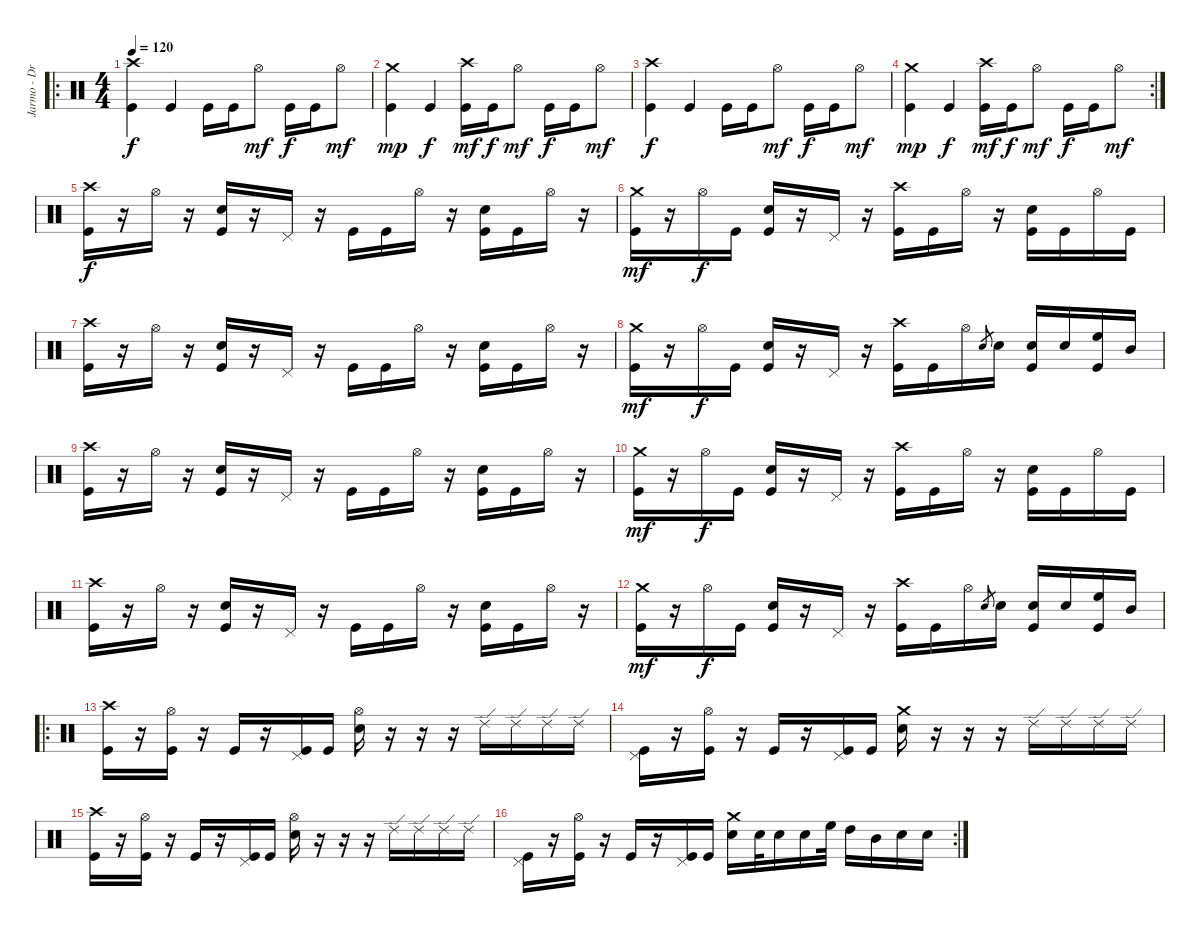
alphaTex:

\track ("Jarmo - Drums" "Jarmo - Dr") {instrument percussion}
\staff {score}
\articulation defaults
\ro
\ts (4 4)
\tempo 120
\clef neutral
\ks c
("Kick (hit)" "Crash high (hit)").4{dy f} "Kick (hit)".4 "Kick (hit)".16 "Kick (hit)".16 "Hi-Hat (open)".8{dy mf} "Kick (hit)".16{dy f} "Kick (hit)".16 "Hi-Hat (open)".8{dy mf} |
("Kick (hit)" "Crash medium (hit)").4{dy mp} "Kick (hit)".4{dy f} ("Kick (hit)" "Crash high (hit)").16{dy mf} "Kick (hit)".16{dy f} "Hi-Hat (open)".8{dy mf} "Kick (hit)".16{dy f} "Kick (hit)".16 "Hi-Hat (open)".8{dy mf} |
("Kick (hit)" "Crash high (hit)").4{dy f} "Kick (hit)".4 "Kick (hit)".16 "Kick (hit)".16 "Hi-Hat (open)".8{dy mf} "Kick (hit)".16{dy f} "Kick (hit)".16 "Hi-Hat (open)".8{dy mf} |
\rc 2
("Kick (hit)" "Crash medium (hit)").4{dy mp} "Kick (hit)".4{dy f} ("Kick (hit)" "Crash high (hit)").16{dy mf} "Kick (hit)".16{dy f} "Hi-Hat (open)".8{dy mf} "Kick (hit)".16{dy f} "Kick (hit)".16 "Hi-Hat (open)".8{dy mf} |
("Kick (hit)" "Crash high (hit)").16{dy f} r.16 "Hi-Hat (open)".16 r.16 ("Kick (hit)" "Electric Snare (hit)").16 r.16 "Pedal Hi-Hat (hit)".16 r.16 "Kick (hit)".16 "Kick (hit)".16 "Hi-Hat (open)".16 r.16 ("Kick (hit)" "Electric Snare (hit)").16 "Kick (hit)".16 "Hi-Hat (open)".16 r.16 |
("Kick (hit)" "Crash medium (hit)").16{dy mf} r.16 "Hi-Hat (open)".16{dy f} "Kick (hit)".16 ("Kick (hit)" "Electric Snare (hit)").16 r.16 "Pedal Hi-Hat (hit)".16 r.16 ("Kick (hit)" "Crash high (hit)").16 "Kick (hit)".16 "Hi-Hat (open)".16 r.16 ("Kick (hit)" "Electric Snare (hit)").16 "Kick (hit)".16 "Hi-Hat (open)".16 "Kick (hit)".16 |
("Kick (hit)" "Crash high (hit)").16 r.16 "Hi-Hat (open)".16 r.16 ("Kick (hit)" "Electric Snare (hit)").16 r.16 "Pedal Hi-Hat (hit)".16 r.16 "Kick (hit)".16 "Kick (hit)".16 "Hi-Hat (open)".16 r.16 ("Kick (hit)" "Electric Snare (hit)").16 "Kick (hit)".16 "Hi-Hat (open)".16 r.16 |
("Kick (hit)" "Crash medium (hit)").16{dy mf} r.16 "Hi-Hat (open)".16{dy f} "Kick (hit)".16 ("Kick (hit)" "Electric Snare (hit)").16 r.16 "Pedal Hi-Hat (hit)".16 r.16 ("Kick (hit)" "Crash high (hit)").16 "Kick (hit)".16 "Hi-Hat (open)".16 "Snare (hit) 2".8{gr} "Electric Snare (hit)".16 ("Kick (hit)" "Electric Snare (hit)").16 "Electric Snare (hit)".16 ("Kick (hit)" "High Floor Tom (hit)").16 "Mid Tom (hit)".16 |
("Kick (hit)" "Crash high (hit)").16 r.16 "Hi-Hat (open)".16 r.16 ("Kick (hit)" "Electric Snare (hit)").16 r.16 "Pedal Hi-Hat (hit)".16 r.16 "Kick (hit)".16 "Kick (hit)".16 "Hi-Hat (open)".16 r.16 ("Kick (hit)" "Electric Snare (hit)").16 "Kick (hit)".16 "Hi-Hat (open)".16 r.16 |
("Kick (hit)" "Crash medium (hit)").16{dy mf} r.16 "Hi-Hat (open)".16{dy f} "Kick (hit)".16 ("Kick (hit)" "Electric Snare (hit)").16 r.16 "Pedal Hi-Hat (hit)".16 r.16 ("Kick (hit)" "Crash high (hit)").16 "Kick (hit)".16 "Hi-Hat (open)".16 r.16 ("Kick (hit)" "Electric Snare (hit)").16 "Kick (hit)".16 "Hi-Hat (open)".16 "Kick (hit)".16 |
("Kick (hit)" "Crash high (hit)").16 r.16 "Hi-Hat (open)".16 r.16 ("Kick (hit)" "Electric Snare (hit)").16 r.16 "Pedal Hi-Hat (hit)".16 r.16 "Kick (hit)".16 "Kick (hit)".16 "Hi-Hat (open)".16 r.16 ("Kick (hit)" "Electric Snare (hit)").16 "Kick (hit)".16 "Hi-Hat (open)".16 r.16 |
("Kick (hit)" "Crash medium (hit)").16{dy mf} r.16 "Hi-Hat (open)".16{dy f} "Kick (hit)".16 ("Kick (hit)" "Electric Snare (hit)").16 r.16 "Pedal Hi-Hat (hit)".16 r.16 ("Kick (hit)" "Crash high (hit)").16 "Kick (hit)".16 "Hi-Hat (open)".16 "Snare (hit) 2".8{gr} "Electric Snare (hit)".16 ("Kick (hit)" "Electric Snare (hit)").16 "Electric Snare (hit)".16 ("Kick (hit)" "High Floor Tom (hit)").16 "Mid Tom (hit)".16 |
\ro
("Kick (hit)" "Crash high (hit)").16 r.16 ("Kick (hit)" "Hi-Hat (open)").16 r.16 "Kick (hit)".16 r.16 ("Kick (hit)" "Pedal Hi-Hat (hit)").16 "Kick (hit)".16 ("Electric Snare (hit)" "Hi-Hat (open)").16 r.16 r.16 r.16 "Ride (edge) 2".16 "Ride (edge) 2".16 "Ride (edge) 2".16 "Ride (edge) 2".16 |
("Kick (hit)" "Pedal Hi-Hat (hit)").16 r.16 ("Kick (hit)" "Hi-Hat (open)").16 r.16 "Kick (hit)".16 r.16 ("Kick (hit)" "Pedal Hi-Hat (hit)").16 "Kick (hit)".16 ("Electric Snare (hit)" "Crash medium (hit)").16 r.16 r.16 r.16 "Ride (edge) 2".16 "Ride (edge) 2".16 "Ride (edge) 2".16 "Ride (edge) 2".16 |
("Kick (hit)" "Crash high (hit)").16 r.16 ("Kick (hit)" "Hi-Hat (open)").16 r.16 "Kick (hit)".16 r.16 ("Kick (hit)" "Pedal Hi-Hat (hit)").16 "Kick (hit)".16 ("Electric Snare (hit)" "Hi-Hat (open)").16 r.16 r.16 r.16 "Ride (edge) 2".16 "Ride (edge) 2".16 "Ride (edge) 2".16 "Ride (edge) 2".16 |
\rc 2
("Kick (hit)" "Pedal Hi-Hat (hit)").16 r.16 ("Kick (hit)" "Hi-Hat (open)").16 r.16 "Kick (hit)".16 r.16 ("Kick (hit)" "Pedal Hi-Hat (hit)").16 "Kick (hit)".16 ("Electric Snare (hit)" "Crash medium (hit)").16 "Electric Snare (hit)".32 "Electric Snare (hit)".16 "Electric Snare (hit)".16 "High Floor Tom (hit)".32 "High Tom (hit)".16 "Mid Tom (hit)".16 "Electric Snare (hit)".16 "Electric Snare (hit)".16
